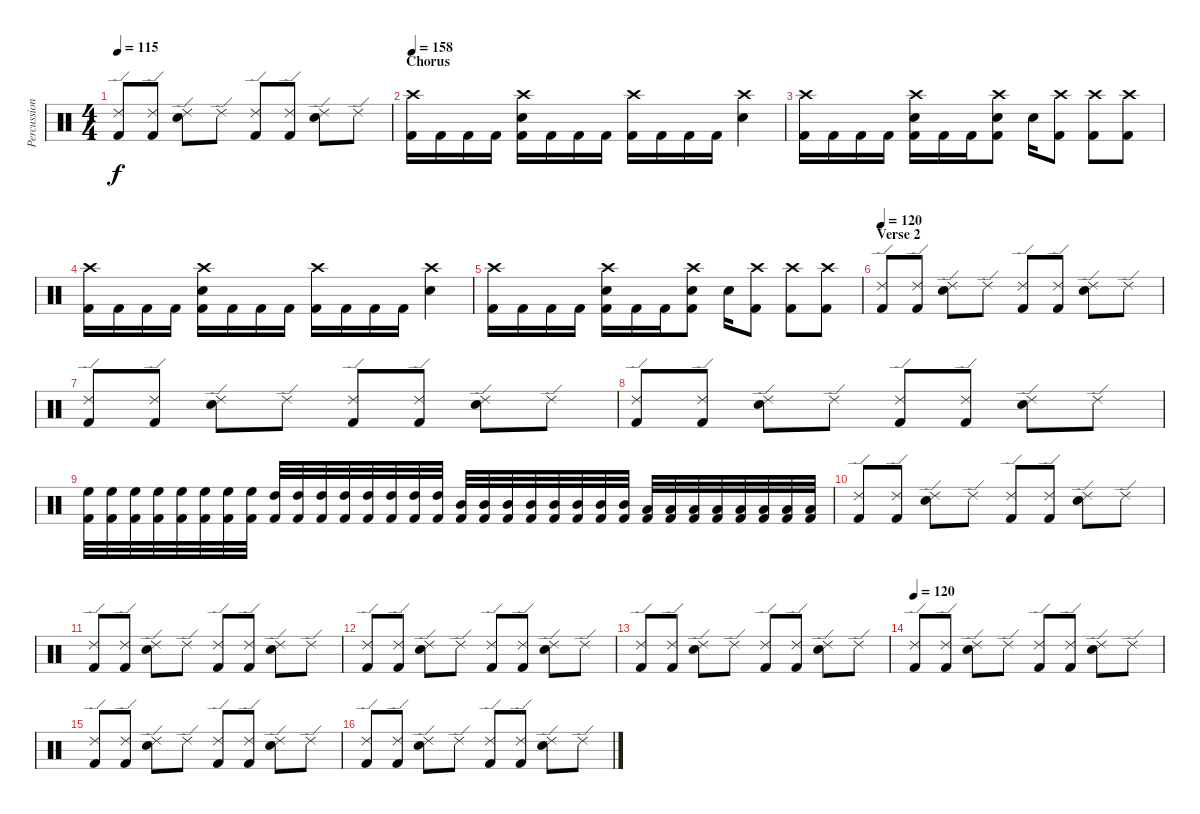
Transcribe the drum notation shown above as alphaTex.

\track ("Percussion" "Percussion") {instrument percussion}
\staff {score}
\articulation defaults
\ts (4 4)
\tempo 115
\clef neutral
\ks c
("Ride (edge) 2" "Kick (hit) 2").8{dy f} ("Ride (edge) 2" "Kick (hit) 2").8 ("Ride (edge) 2" "Snare (hit) 2").8 "Ride (edge) 2".8 ("Ride (edge) 2" "Kick (hit) 2").8 ("Ride (edge) 2" "Kick (hit) 2").8 ("Ride (edge) 2" "Snare (hit) 2").8 "Ride (edge) 2".8 |
\section ("" "Chorus")
\tempo 156
\tempo 158
("Crash high (hit)" "Kick (hit) 2").16 "Kick (hit) 2".16 "Kick (hit) 2".16 "Kick (hit) 2".16 ("Crash high (hit)" "Snare (hit) 2" "Kick (hit) 2").16 "Kick (hit) 2".16 "Kick (hit) 2".16 "Kick (hit) 2".16 ("Crash high (hit)" "Kick (hit) 2").16 "Kick (hit) 2".16 "Kick (hit) 2".16 "Kick (hit) 2".16 ("Crash high (hit)" "Snare (hit) 2").4 |
("Crash high (hit)" "Kick (hit) 2").16 "Kick (hit) 2".16 "Kick (hit) 2".16 "Kick (hit) 2".16 ("Crash high (hit)" "Snare (hit) 2" "Kick (hit) 2").16 "Kick (hit) 2".16 "Kick (hit) 2".16 ("Crash high (hit)" "Snare (hit) 2" "Kick (hit) 2").8 "Snare (hit) 2".16 ("Crash high (hit)" "Kick (hit) 2").8 ("Crash high (hit)" "Kick (hit) 2").8 ("Crash high (hit)" "Kick (hit) 2").8 |
("Crash high (hit)" "Kick (hit) 2").16 "Kick (hit) 2".16 "Kick (hit) 2".16 "Kick (hit) 2".16 ("Crash high (hit)" "Snare (hit) 2" "Kick (hit) 2").16 "Kick (hit) 2".16 "Kick (hit) 2".16 "Kick (hit) 2".16 ("Crash high (hit)" "Kick (hit) 2").16 "Kick (hit) 2".16 "Kick (hit) 2".16 "Kick (hit) 2".16 ("Crash high (hit)" "Snare (hit) 2").4 |
("Crash high (hit)" "Kick (hit) 2").16 "Kick (hit) 2".16 "Kick (hit) 2".16 "Kick (hit) 2".16 ("Crash high (hit)" "Snare (hit) 2" "Kick (hit) 2").16 "Kick (hit) 2".16 "Kick (hit) 2".16 ("Crash high (hit)" "Snare (hit) 2" "Kick (hit) 2").8 "Snare (hit) 2".16 ("Crash high (hit)" "Kick (hit) 2").8 ("Crash high (hit)" "Kick (hit) 2").8 ("Crash high (hit)" "Kick (hit) 2").8 |
\section ("" "Verse 2")
\tempo 120
("Ride (edge) 2" "Kick (hit) 2").8 ("Ride (edge) 2" "Kick (hit) 2").8 ("Ride (edge) 2" "Snare (hit) 2").8 "Ride (edge) 2".8 ("Ride (edge) 2" "Kick (hit) 2").8 ("Ride (edge) 2" "Kick (hit) 2").8 ("Ride (edge) 2" "Snare (hit) 2").8 "Ride (edge) 2".8 |
("Ride (edge) 2" "Kick (hit) 2").8 ("Ride (edge) 2" "Kick (hit) 2").8 ("Ride (edge) 2" "Snare (hit) 2").8 "Ride (edge) 2".8 ("Ride (edge) 2" "Kick (hit) 2").8 ("Ride (edge) 2" "Kick (hit) 2").8 ("Ride (edge) 2" "Snare (hit) 2").8 "Ride (edge) 2".8 |
("Ride (edge) 2" "Kick (hit) 2").8 ("Ride (edge) 2" "Kick (hit) 2").8 ("Ride (edge) 2" "Snare (hit) 2").8 "Ride (edge) 2".8 ("Ride (edge) 2" "Kick (hit) 2").8 ("Ride (edge) 2" "Kick (hit) 2").8 ("Ride (edge) 2" "Snare (hit) 2").8 "Ride (edge) 2".8 |
("High Floor Tom (hit)" "Kick (hit) 2").32 ("High Floor Tom (hit)" "Kick (hit) 2").32 ("High Floor Tom (hit)" "Kick (hit) 2").32 ("High Floor Tom (hit)" "Kick (hit) 2").32 ("High Floor Tom (hit)" "Kick (hit) 2").32 ("High Floor Tom (hit)" "Kick (hit) 2").32 ("High Floor Tom (hit)" "Kick (hit) 2").32 ("High Floor Tom (hit)" "Kick (hit) 2").32 ("High Tom (hit)" "Kick (hit) 2").32 ("High Tom (hit)" "Kick (hit) 2").32 ("High Tom (hit)" "Kick (hit) 2").32 ("High Tom (hit)" "Kick (hit) 2").32 ("High Tom (hit)" "Kick (hit) 2").32 ("High Tom (hit)" "Kick (hit) 2").32 ("High Tom (hit)" "Kick (hit) 2").32 ("High Tom (hit)" "Kick (hit) 2").32 ("Mid Tom (hit)" "Kick (hit) 2").32 ("Mid Tom (hit)" "Kick (hit) 2").32 ("Mid Tom (hit)" "Kick (hit) 2").32 ("Mid Tom (hit)" "Kick (hit) 2").32 ("Mid Tom (hit)" "Kick (hit) 2").32 ("Mid Tom (hit)" "Kick (hit) 2").32 ("Mid Tom (hit)" "Kick (hit) 2").32 ("Mid Tom (hit)" "Kick (hit) 2").32 ("Low Tom (hit)" "Kick (hit) 2").32 ("Low Tom (hit)" "Kick (hit) 2").32 ("Low Tom (hit)" "Kick (hit) 2").32 ("Low Tom (hit)" "Kick (hit) 2").32 ("Low Tom (hit)" "Kick (hit) 2").32 ("Low Tom (hit)" "Kick (hit) 2").32 ("Low Tom (hit)" "Kick (hit) 2").32 ("Low Tom (hit)" "Kick (hit) 2").32 |
("Ride (edge) 2" "Kick (hit) 2").8 ("Ride (edge) 2" "Kick (hit) 2").8 ("Ride (edge) 2" "Snare (hit) 2").8 "Ride (edge) 2".8 ("Ride (edge) 2" "Kick (hit) 2").8 ("Ride (edge) 2" "Kick (hit) 2").8 ("Ride (edge) 2" "Snare (hit) 2").8 "Ride (edge) 2".8 |
("Ride (edge) 2" "Kick (hit) 2").8 ("Ride (edge) 2" "Kick (hit) 2").8 ("Ride (edge) 2" "Snare (hit) 2").8 "Ride (edge) 2".8 ("Ride (edge) 2" "Kick (hit) 2").8 ("Ride (edge) 2" "Kick (hit) 2").8 ("Ride (edge) 2" "Snare (hit) 2").8 "Ride (edge) 2".8 |
("Ride (edge) 2" "Kick (hit) 2").8 ("Ride (edge) 2" "Kick (hit) 2").8 ("Ride (edge) 2" "Snare (hit) 2").8 "Ride (edge) 2".8 ("Ride (edge) 2" "Kick (hit) 2").8 ("Ride (edge) 2" "Kick (hit) 2").8 ("Ride (edge) 2" "Snare (hit) 2").8 "Ride (edge) 2".8 |
("Ride (edge) 2" "Kick (hit) 2").8 ("Ride (edge) 2" "Kick (hit) 2").8 ("Ride (edge) 2" "Snare (hit) 2").8 "Ride (edge) 2".8 ("Ride (edge) 2" "Kick (hit) 2").8 ("Ride (edge) 2" "Kick (hit) 2").8 ("Ride (edge) 2" "Snare (hit) 2").8 "Ride (edge) 2".8 |
\tempo 120
("Ride (edge) 2" "Kick (hit) 2").8 ("Ride (edge) 2" "Kick (hit) 2").8 ("Ride (edge) 2" "Snare (hit) 2").8 "Ride (edge) 2".8 ("Ride (edge) 2" "Kick (hit) 2").8 ("Ride (edge) 2" "Kick (hit) 2").8 ("Ride (edge) 2" "Snare (hit) 2").8 "Ride (edge) 2".8 |
("Ride (edge) 2" "Kick (hit) 2").8 ("Ride (edge) 2" "Kick (hit) 2").8 ("Ride (edge) 2" "Snare (hit) 2").8 "Ride (edge) 2".8 ("Ride (edge) 2" "Kick (hit) 2").8 ("Ride (edge) 2" "Kick (hit) 2").8 ("Ride (edge) 2" "Snare (hit) 2").8 "Ride (edge) 2".8 |
("Ride (edge) 2" "Kick (hit) 2").8 ("Ride (edge) 2" "Kick (hit) 2").8 ("Ride (edge) 2" "Snare (hit) 2").8 "Ride (edge) 2".8 ("Ride (edge) 2" "Kick (hit) 2").8 ("Ride (edge) 2" "Kick (hit) 2").8 ("Ride (edge) 2" "Snare (hit) 2").8 "Ride (edge) 2".8
